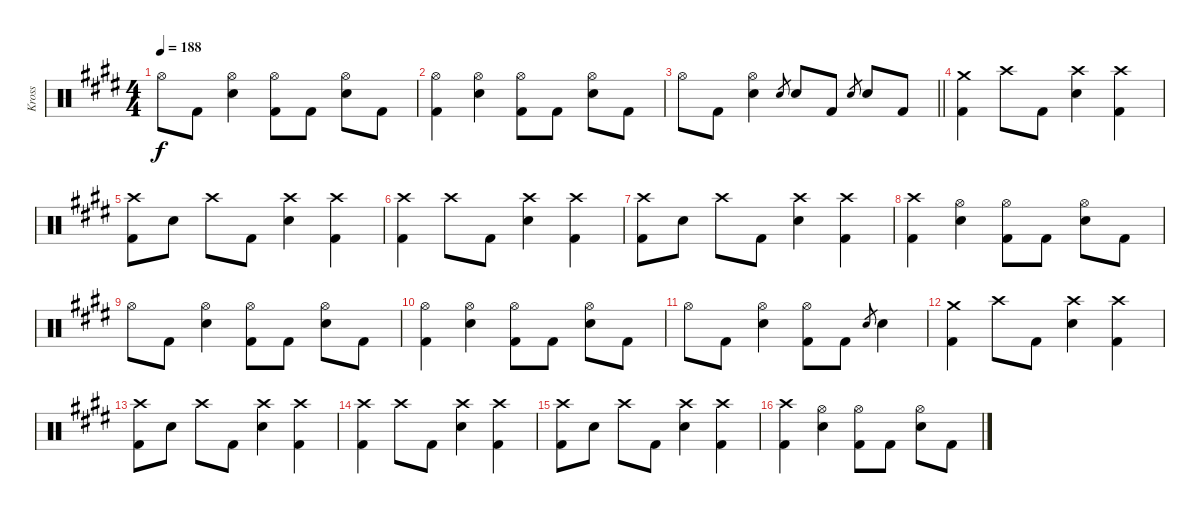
\track ("Kross" "Kross") {instrument percussion}
\staff {score}
\articulation defaults
\ts (4 4)
\tempo 188
\clef neutral
\ks e "Hi-Hat (open)".8{dy f} "Kick (hit) 2".8
("Hi-Hat (open)" "Electric Snare (hit)").4 ("Hi-Hat (open)" "Kick (hit) 2").8 "Kick (hit) 2".8 ("Hi-Hat (open)" "Electric Snare (hit)").8 "Kick (hit) 2".8 |
("Hi-Hat (open)" "Kick (hit) 2").4 ("Hi-Hat (open)" "Electric Snare (hit)").4 ("Hi-Hat (open)" "Kick (hit) 2").8 "Kick (hit) 2".8 ("Hi-Hat (open)" "Electric Snare (hit)").8 "Kick (hit) 2".8 |
\barLineRight lightlight "Hi-Hat (open)".8 "Kick (hit) 2".8
("Hi-Hat (open)" "Electric Snare (hit)").4 "Electric Snare (hit)".8{gr} "Electric Snare (hit)".8 "Kick (hit) 2".8 "Electric Snare (hit)".8{gr} "Electric Snare (hit)".8 "Kick (hit) 2".8 |
("Crash medium (hit)" "Kick (hit) 2").4 "Crash high (hit)".8 "Kick (hit) 2".8 ("Crash high (hit)" "Electric Snare (hit)").4 ("Crash high (hit)" "Kick (hit) 2").4 |
("Crash high (hit)" "Kick (hit) 2").8 "Electric Snare (hit)".8 "Crash high (hit)".8 "Kick (hit) 2".8 ("Crash high (hit)" "Electric Snare (hit)").4 ("Crash high (hit)" "Kick (hit) 2").4 |
("Crash high (hit)" "Kick (hit) 2").4 "Crash high (hit)".8 "Kick (hit) 2".8 ("Crash high (hit)" "Electric Snare (hit)").4 ("Crash high (hit)" "Kick (hit) 2").4 |
("Crash high (hit)" "Kick (hit) 2").8 "Electric Snare (hit)".8 "Crash high (hit)".8 "Kick (hit) 2".8 ("Crash high (hit)" "Electric Snare (hit)").4 ("Crash high (hit)" "Kick (hit) 2").4 |
("Crash high (hit)" "Kick (hit) 2").4 ("Hi-Hat (open)" "Electric Snare (hit)").4 ("Hi-Hat (open)" "Kick (hit) 2").8 "Kick (hit) 2".8 ("Hi-Hat (open)" "Electric Snare (hit)").8 "Kick (hit) 2".8 |
"Hi-Hat (open)".8 "Kick (hit) 2".8 ("Hi-Hat (open)" "Electric Snare (hit)").4 ("Hi-Hat (open)" "Kick (hit) 2").8 "Kick (hit) 2".8 ("Hi-Hat (open)" "Electric Snare (hit)").8 "Kick (hit) 2".8 |
("Hi-Hat (open)" "Kick (hit) 2").4 ("Hi-Hat (open)" "Electric Snare (hit)").4 ("Hi-Hat (open)" "Kick (hit) 2").8 "Kick (hit) 2".8 ("Hi-Hat (open)" "Electric Snare (hit)").8 "Kick (hit) 2".8 |
"Hi-Hat (open)".8 "Kick (hit) 2".8 ("Hi-Hat (open)" "Electric Snare (hit)").4 ("Hi-Hat (open)" "Kick (hit) 2").8 "Kick (hit) 2".8 "Electric Snare (hit)".8{gr} "Electric Snare (hit)".4 |
("Crash medium (hit)" "Kick (hit) 2").4 "Crash high (hit)".8 "Kick (hit) 2".8 ("Crash high (hit)" "Electric Snare (hit)").4 ("Crash high (hit)" "Kick (hit) 2").4 |
("Crash high (hit)" "Kick (hit) 2").8 "Electric Snare (hit)".8 "Crash high (hit)".8 "Kick (hit) 2".8 ("Crash high (hit)" "Electric Snare (hit)").4 ("Crash high (hit)" "Kick (hit) 2").4 |
("Crash high (hit)" "Kick (hit) 2").4 "Crash high (hit)".8 "Kick (hit) 2".8 ("Crash high (hit)" "Electric Snare (hit)").4 ("Crash high (hit)" "Kick (hit) 2").4 |
("Crash high (hit)" "Kick (hit) 2").8 "Electric Snare (hit)".8 "Crash high (hit)".8 "Kick (hit) 2".8 ("Crash high (hit)" "Electric Snare (hit)").4 ("Crash high (hit)" "Kick (hit) 2").4 |
("Crash high (hit)" "Kick (hit) 2").4 ("Hi-Hat (open)" "Electric Snare (hit)").4 ("Hi-Hat (open)" "Kick (hit) 2").8 "Kick (hit) 2".8 ("Hi-Hat (open)" "Electric Snare (hit)").8 "Kick (hit) 2".8
